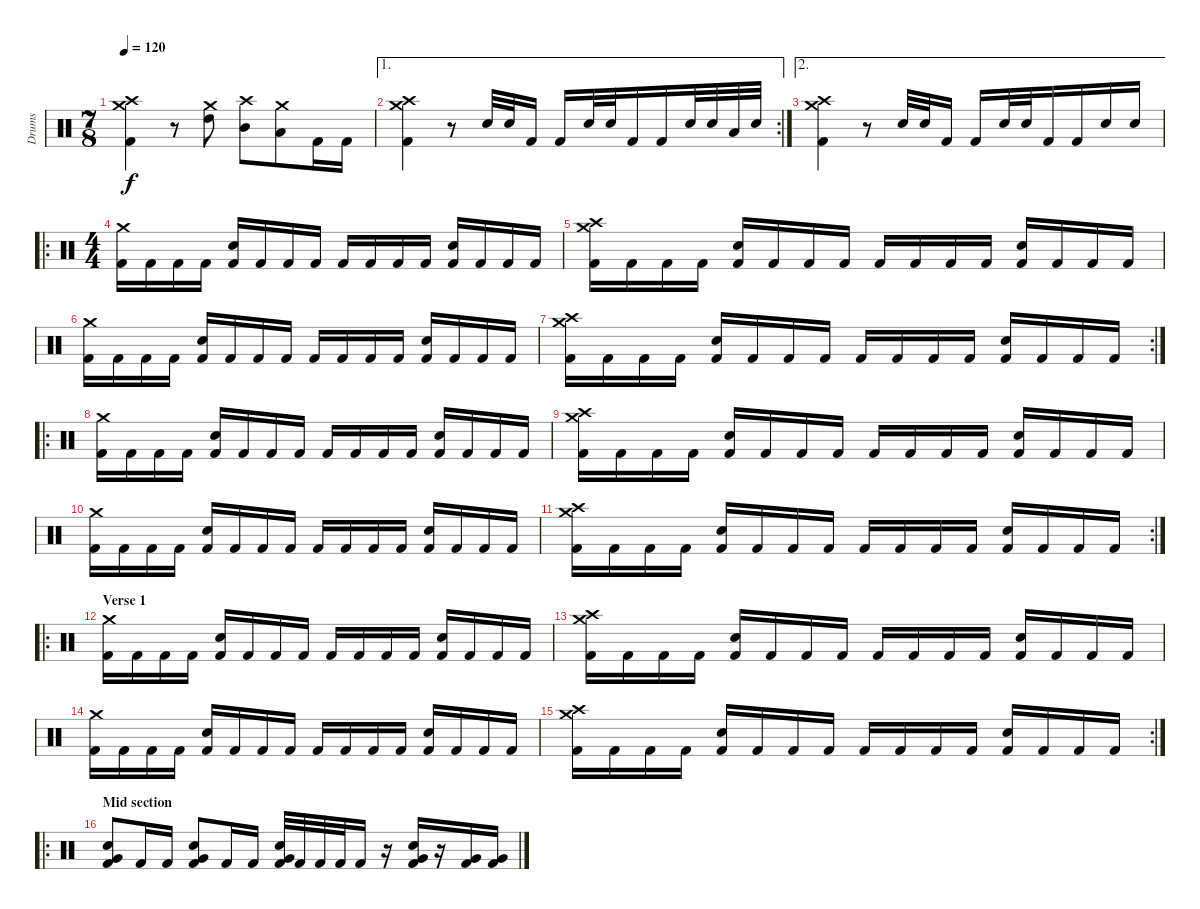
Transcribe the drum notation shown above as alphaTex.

\track ("Drums" "Drums") {instrument percussion}
\staff {score}
\articulation defaults
\ts (7 8)
\tempo 120
\clef neutral
\ks c
("Crash medium (hit)" "Crash high (hit)" "Kick (hit) 2").4{dy f} r.8 ("Crash medium (hit)" "High Tom (hit)").8 ("Crash high (hit)" "Mid Tom (hit)").8 ("Crash medium (hit)" "Low Tom (hit)").8 "Kick (hit) 2".16 "Kick (hit) 2".16 |
\ae 1
\rc 2
("Crash medium (hit)" "Crash high (hit)" "Kick (hit) 2").4 r.8 "Snare (hit) 2".32 "Snare (hit) 2".32 "Kick (hit) 2".16 "Kick (hit) 2".16 "Snare (hit) 2".32 "Snare (hit) 2".32 "Kick (hit) 2".16 "Kick (hit) 2".16 "Snare (hit) 2".32 "Snare (hit) 2".32 "Low Tom (hit)".32 "Snare (hit) 2".32 |
\ae 2
("Crash medium (hit)" "Crash high (hit)" "Kick (hit) 2").4 r.8 "Snare (hit) 2".32 "Snare (hit) 2".32 "Kick (hit) 2".16 "Kick (hit) 2".16 "Snare (hit) 2".32 "Snare (hit) 2".32 "Kick (hit) 2".16 "Kick (hit) 2".16 "Snare (hit) 2".16 "Snare (hit) 2".16 |
\ro
\ts (4 4)
("Crash medium (hit)" "Kick (hit) 2").16 "Kick (hit) 2".16 "Kick (hit) 2".16 "Kick (hit) 2".16 ("Snare (hit) 2" "Kick (hit) 2").16 "Kick (hit) 2".16 "Kick (hit) 2".16 "Kick (hit) 2".16 "Kick (hit) 2".16 "Kick (hit) 2".16 "Kick (hit) 2".16 "Kick (hit) 2".16 ("Snare (hit) 2" "Kick (hit) 2").16 "Kick (hit) 2".16 "Kick (hit) 2".16 "Kick (hit) 2".16 |
("Crash medium (hit)" "Crash high (hit)" "Kick (hit) 2").16 "Kick (hit) 2".16 "Kick (hit) 2".16 "Kick (hit) 2".16 ("Snare (hit) 2" "Kick (hit) 2").16 "Kick (hit) 2".16 "Kick (hit) 2".16 "Kick (hit) 2".16 "Kick (hit) 2".16 "Kick (hit) 2".16 "Kick (hit) 2".16 "Kick (hit) 2".16 ("Snare (hit) 2" "Kick (hit) 2").16 "Kick (hit) 2".16 "Kick (hit) 2".16 "Kick (hit) 2".16 |
("Crash medium (hit)" "Kick (hit) 2").16 "Kick (hit) 2".16 "Kick (hit) 2".16 "Kick (hit) 2".16 ("Snare (hit) 2" "Kick (hit) 2").16 "Kick (hit) 2".16 "Kick (hit) 2".16 "Kick (hit) 2".16 "Kick (hit) 2".16 "Kick (hit) 2".16 "Kick (hit) 2".16 "Kick (hit) 2".16 ("Snare (hit) 2" "Kick (hit) 2").16 "Kick (hit) 2".16 "Kick (hit) 2".16 "Kick (hit) 2".16 |
\rc 2
("Crash medium (hit)" "Crash high (hit)" "Kick (hit) 2").16 "Kick (hit) 2".16 "Kick (hit) 2".16 "Kick (hit) 2".16 ("Snare (hit) 2" "Kick (hit) 2").16 "Kick (hit) 2".16 "Kick (hit) 2".16 "Kick (hit) 2".16 "Kick (hit) 2".16 "Kick (hit) 2".16 "Kick (hit) 2".16 "Kick (hit) 2".16 ("Snare (hit) 2" "Kick (hit) 2").16 "Kick (hit) 2".16 "Kick (hit) 2".16 "Kick (hit) 2".16 |
\ro
("Crash medium (hit)" "Kick (hit) 2").16 "Kick (hit) 2".16 "Kick (hit) 2".16 "Kick (hit) 2".16 ("Snare (hit) 2" "Kick (hit) 2").16 "Kick (hit) 2".16 "Kick (hit) 2".16 "Kick (hit) 2".16 "Kick (hit) 2".16 "Kick (hit) 2".16 "Kick (hit) 2".16 "Kick (hit) 2".16 ("Snare (hit) 2" "Kick (hit) 2").16 "Kick (hit) 2".16 "Kick (hit) 2".16 "Kick (hit) 2".16 |
("Crash medium (hit)" "Crash high (hit)" "Kick (hit) 2").16 "Kick (hit) 2".16 "Kick (hit) 2".16 "Kick (hit) 2".16 ("Snare (hit) 2" "Kick (hit) 2").16 "Kick (hit) 2".16 "Kick (hit) 2".16 "Kick (hit) 2".16 "Kick (hit) 2".16 "Kick (hit) 2".16 "Kick (hit) 2".16 "Kick (hit) 2".16 ("Snare (hit) 2" "Kick (hit) 2").16 "Kick (hit) 2".16 "Kick (hit) 2".16 "Kick (hit) 2".16 |
("Crash medium (hit)" "Kick (hit) 2").16 "Kick (hit) 2".16 "Kick (hit) 2".16 "Kick (hit) 2".16 ("Snare (hit) 2" "Kick (hit) 2").16 "Kick (hit) 2".16 "Kick (hit) 2".16 "Kick (hit) 2".16 "Kick (hit) 2".16 "Kick (hit) 2".16 "Kick (hit) 2".16 "Kick (hit) 2".16 ("Snare (hit) 2" "Kick (hit) 2").16 "Kick (hit) 2".16 "Kick (hit) 2".16 "Kick (hit) 2".16 |
\rc 2
("Crash medium (hit)" "Crash high (hit)" "Kick (hit) 2").16 "Kick (hit) 2".16 "Kick (hit) 2".16 "Kick (hit) 2".16 ("Snare (hit) 2" "Kick (hit) 2").16 "Kick (hit) 2".16 "Kick (hit) 2".16 "Kick (hit) 2".16 "Kick (hit) 2".16 "Kick (hit) 2".16 "Kick (hit) 2".16 "Kick (hit) 2".16 ("Snare (hit) 2" "Kick (hit) 2").16 "Kick (hit) 2".16 "Kick (hit) 2".16 "Kick (hit) 2".16 |
\ro
\section ("" "Verse 1")
("Crash medium (hit)" "Kick (hit) 2").16 "Kick (hit) 2".16 "Kick (hit) 2".16 "Kick (hit) 2".16 ("Snare (hit) 2" "Kick (hit) 2").16 "Kick (hit) 2".16 "Kick (hit) 2".16 "Kick (hit) 2".16 "Kick (hit) 2".16 "Kick (hit) 2".16 "Kick (hit) 2".16 "Kick (hit) 2".16 ("Snare (hit) 2" "Kick (hit) 2").16 "Kick (hit) 2".16 "Kick (hit) 2".16 "Kick (hit) 2".16 |
("Crash medium (hit)" "Crash high (hit)" "Kick (hit) 2").16 "Kick (hit) 2".16 "Kick (hit) 2".16 "Kick (hit) 2".16 ("Snare (hit) 2" "Kick (hit) 2").16 "Kick (hit) 2".16 "Kick (hit) 2".16 "Kick (hit) 2".16 "Kick (hit) 2".16 "Kick (hit) 2".16 "Kick (hit) 2".16 "Kick (hit) 2".16 ("Snare (hit) 2" "Kick (hit) 2").16 "Kick (hit) 2".16 "Kick (hit) 2".16 "Kick (hit) 2".16 |
("Crash medium (hit)" "Kick (hit) 2").16 "Kick (hit) 2".16 "Kick (hit) 2".16 "Kick (hit) 2".16 ("Snare (hit) 2" "Kick (hit) 2").16 "Kick (hit) 2".16 "Kick (hit) 2".16 "Kick (hit) 2".16 "Kick (hit) 2".16 "Kick (hit) 2".16 "Kick (hit) 2".16 "Kick (hit) 2".16 ("Snare (hit) 2" "Kick (hit) 2").16 "Kick (hit) 2".16 "Kick (hit) 2".16 "Kick (hit) 2".16 |
\rc 2
("Crash medium (hit)" "Crash high (hit)" "Kick (hit) 2").16 "Kick (hit) 2".16 "Kick (hit) 2".16 "Kick (hit) 2".16 ("Snare (hit) 2" "Kick (hit) 2").16 "Kick (hit) 2".16 "Kick (hit) 2".16 "Kick (hit) 2".16 "Kick (hit) 2".16 "Kick (hit) 2".16 "Kick (hit) 2".16 "Kick (hit) 2".16 ("Snare (hit) 2" "Kick (hit) 2").16 "Kick (hit) 2".16 "Kick (hit) 2".16 "Kick (hit) 2".16 |
\ro
\section ("" "Mid section")
("Snare (hit) 2" "Very Low Tom (hit)" "Kick (hit) 2").8 "Kick (hit) 2".16 "Kick (hit) 2".16 ("Snare (hit) 2" "Very Low Tom (hit)" "Kick (hit) 2").8 "Kick (hit) 2".16 "Kick (hit) 2".16 ("Snare (hit) 2" "Very Low Tom (hit)" "Kick (hit) 2").32 "Kick (hit) 2".32 "Kick (hit) 2".32 "Kick (hit) 2".32 "Kick (hit) 2".16 r.16 ("Snare (hit) 2" "Very Low Tom (hit)" "Kick (hit) 2").16 r.16 ("Very Low Tom (hit)" "Kick (hit) 2").16 ("Very Low Tom (hit)" "Kick (hit) 2").16
